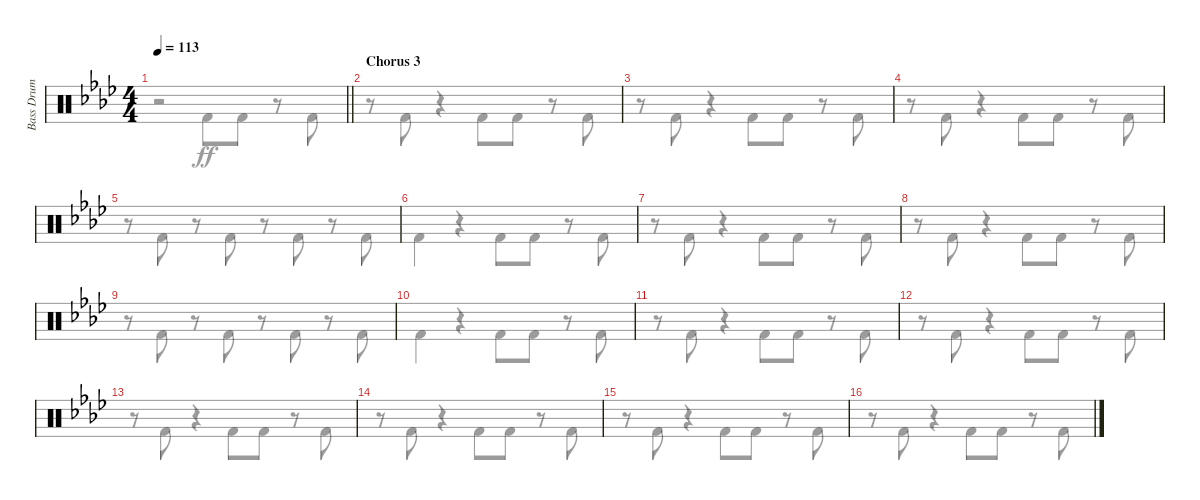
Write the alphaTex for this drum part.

\track ("Bass Drum" "Bass Drum") {instrument percussion}
\staff {score}
\articulation defaults
\voice
\ts (4 4)
\tempo 113
\clef neutral
\barLineRight lightlight
\ks fminor
|
\section ("" "Chorus 3")
|
|
|
|
|
|
|
|
|
|
|
|
|
|
\voice
\clef neutral
\barLineRight lightlight
\ks fminor
r.2{dy ff} "Kick (hit) 2".8 "Kick (hit) 2".8 r.8 "Kick (hit) 2".8 |
r.8 "Kick (hit) 2".8 r.4 "Kick (hit) 2".8 "Kick (hit) 2".8 r.8 "Kick (hit) 2".8 |
r.8 "Kick (hit) 2".8 r.4 "Kick (hit) 2".8 "Kick (hit) 2".8 r.8 "Kick (hit) 2".8 |
r.8 "Kick (hit) 2".8 r.4 "Kick (hit) 2".8 "Kick (hit) 2".8 r.8 "Kick (hit) 2".8 |
r.8 "Kick (hit) 2".8 r.8 "Kick (hit) 2".8 r.8 "Kick (hit) 2".8 r.8 "Kick (hit) 2".8 |
"Kick (hit) 2".4 r.4 "Kick (hit) 2".8 "Kick (hit) 2".8 r.8 "Kick (hit) 2".8 |
r.8 "Kick (hit) 2".8 r.4 "Kick (hit) 2".8 "Kick (hit) 2".8 r.8 "Kick (hit) 2".8 |
r.8 "Kick (hit) 2".8 r.4 "Kick (hit) 2".8 "Kick (hit) 2".8 r.8 "Kick (hit) 2".8 |
r.8 "Kick (hit) 2".8 r.8 "Kick (hit) 2".8 r.8 "Kick (hit) 2".8 r.8 "Kick (hit) 2".8 |
"Kick (hit) 2".4 r.4 "Kick (hit) 2".8 "Kick (hit) 2".8 r.8 "Kick (hit) 2".8 |
r.8 "Kick (hit) 2".8 r.4 "Kick (hit) 2".8 "Kick (hit) 2".8 r.8 "Kick (hit) 2".8 |
r.8 "Kick (hit) 2".8 r.4 "Kick (hit) 2".8 "Kick (hit) 2".8 r.8 "Kick (hit) 2".8 |
r.8 "Kick (hit) 2".8 r.4 "Kick (hit) 2".8 "Kick (hit) 2".8 r.8 "Kick (hit) 2".8 |
r.8 "Kick (hit) 2".8 r.4 "Kick (hit) 2".8 "Kick (hit) 2".8 r.8 "Kick (hit) 2".8 |
r.8 "Kick (hit) 2".8 r.4 "Kick (hit) 2".8 "Kick (hit) 2".8 r.8 "Kick (hit) 2".8 |
r.8 "Kick (hit) 2".8 r.4 "Kick (hit) 2".8 "Kick (hit) 2".8 r.8 "Kick (hit) 2".8
